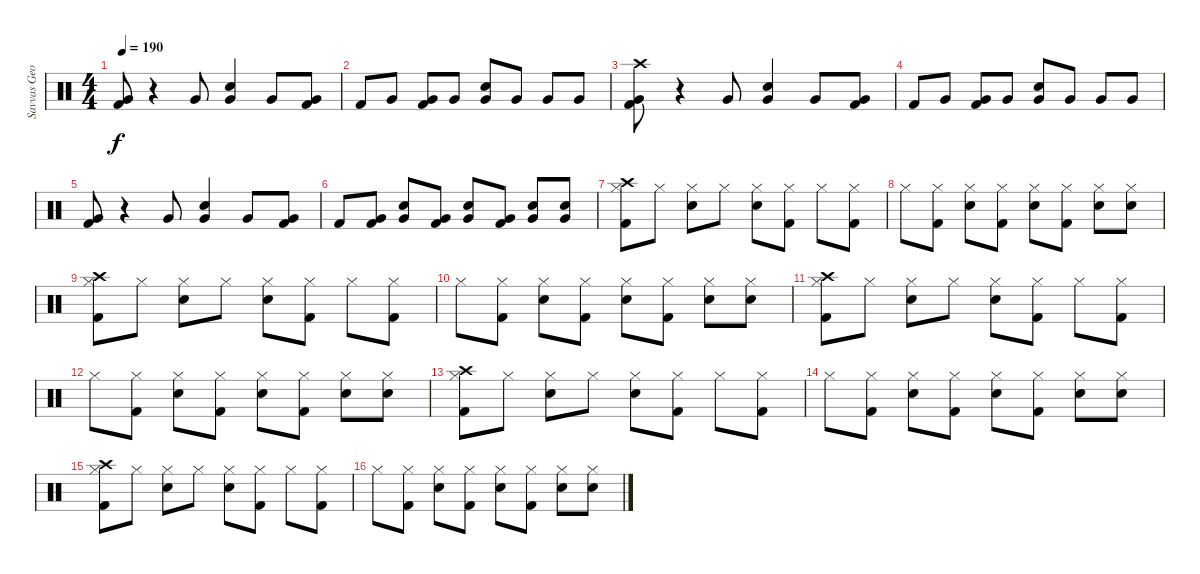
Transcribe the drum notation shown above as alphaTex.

\track ("Savvas Georgiadis" "Savvas Geo") {instrument percussion}
\staff {score}
\articulation defaults
\ts (4 4)
\tempo 190
\clef neutral
\ks c
("Kick (hit) 2" "Very Low Tom (hit)").8{dy f} r.4 "Very Low Tom (hit)".8 ("Electric Snare (hit)" "Very Low Tom (hit)").4 "Very Low Tom (hit)".8 ("Kick (hit) 2" "Very Low Tom (hit)").8 |
"Kick (hit) 2".8 "Very Low Tom (hit)".8 ("Kick (hit) 2" "Very Low Tom (hit)").8 "Very Low Tom (hit)".8 ("Electric Snare (hit)" "Very Low Tom (hit)").8 "Very Low Tom (hit)".8 "Very Low Tom (hit)".8 "Very Low Tom (hit)".8 |
("Crash high (hit)" "Kick (hit) 2" "Very Low Tom (hit)").8 r.4 "Very Low Tom (hit)".8 ("Electric Snare (hit)" "Very Low Tom (hit)").4 "Very Low Tom (hit)".8 ("Kick (hit) 2" "Very Low Tom (hit)").8 |
"Kick (hit) 2".8 "Very Low Tom (hit)".8 ("Kick (hit) 2" "Very Low Tom (hit)").8 "Very Low Tom (hit)".8 ("Electric Snare (hit)" "Very Low Tom (hit)").8 "Very Low Tom (hit)".8 "Very Low Tom (hit)".8 "Very Low Tom (hit)".8 |
("Kick (hit) 2" "Very Low Tom (hit)").8 r.4 "Very Low Tom (hit)".8 ("Electric Snare (hit)" "Very Low Tom (hit)").4 "Very Low Tom (hit)".8 ("Kick (hit) 2" "Very Low Tom (hit)").8 |
"Kick (hit) 2".8 ("Kick (hit) 2" "Very Low Tom (hit)").8 ("Electric Snare (hit)" "Very Low Tom (hit)").8 ("Kick (hit) 2" "Very Low Tom (hit)").8 ("Electric Snare (hit)" "Very Low Tom (hit)").8 ("Kick (hit) 2" "Very Low Tom (hit)").8 ("Electric Snare (hit)" "Very Low Tom (hit)").8 ("Electric Snare (hit)" "Very Low Tom (hit)").8 |
("Crash high (hit)" "Hi-Hat (closed)" "Kick (hit) 2").8 "Hi-Hat (closed)".8 ("Hi-Hat (closed)" "Electric Snare (hit)").8 "Hi-Hat (closed)".8 ("Hi-Hat (closed)" "Electric Snare (hit)").8 ("Hi-Hat (closed)" "Kick (hit) 2").8 "Hi-Hat (closed)".8 ("Hi-Hat (closed)" "Kick (hit) 2").8 |
"Hi-Hat (closed)".8 ("Hi-Hat (closed)" "Kick (hit) 2").8 ("Hi-Hat (closed)" "Electric Snare (hit)").8 ("Hi-Hat (closed)" "Kick (hit) 2").8 ("Hi-Hat (closed)" "Electric Snare (hit)").8 ("Hi-Hat (closed)" "Kick (hit) 2").8 ("Hi-Hat (closed)" "Electric Snare (hit)").8 ("Hi-Hat (closed)" "Electric Snare (hit)").8 |
("Crash high (hit)" "Hi-Hat (closed)" "Kick (hit) 2").8 "Hi-Hat (closed)".8 ("Hi-Hat (closed)" "Electric Snare (hit)").8 "Hi-Hat (closed)".8 ("Hi-Hat (closed)" "Electric Snare (hit)").8 ("Hi-Hat (closed)" "Kick (hit) 2").8 "Hi-Hat (closed)".8 ("Hi-Hat (closed)" "Kick (hit) 2").8 |
"Hi-Hat (closed)".8 ("Hi-Hat (closed)" "Kick (hit) 2").8 ("Hi-Hat (closed)" "Electric Snare (hit)").8 ("Hi-Hat (closed)" "Kick (hit) 2").8 ("Hi-Hat (closed)" "Electric Snare (hit)").8 ("Hi-Hat (closed)" "Kick (hit) 2").8 ("Hi-Hat (closed)" "Electric Snare (hit)").8 ("Hi-Hat (closed)" "Electric Snare (hit)").8 |
("Crash high (hit)" "Hi-Hat (closed)" "Kick (hit) 2").8 "Hi-Hat (closed)".8 ("Hi-Hat (closed)" "Electric Snare (hit)").8 "Hi-Hat (closed)".8 ("Hi-Hat (closed)" "Electric Snare (hit)").8 ("Hi-Hat (closed)" "Kick (hit) 2").8 "Hi-Hat (closed)".8 ("Hi-Hat (closed)" "Kick (hit) 2").8 |
"Hi-Hat (closed)".8 ("Hi-Hat (closed)" "Kick (hit) 2").8 ("Hi-Hat (closed)" "Electric Snare (hit)").8 ("Hi-Hat (closed)" "Kick (hit) 2").8 ("Hi-Hat (closed)" "Electric Snare (hit)").8 ("Hi-Hat (closed)" "Kick (hit) 2").8 ("Hi-Hat (closed)" "Electric Snare (hit)").8 ("Hi-Hat (closed)" "Electric Snare (hit)").8 |
("Crash high (hit)" "Hi-Hat (closed)" "Kick (hit) 2").8 "Hi-Hat (closed)".8 ("Hi-Hat (closed)" "Electric Snare (hit)").8 "Hi-Hat (closed)".8 ("Hi-Hat (closed)" "Electric Snare (hit)").8 ("Hi-Hat (closed)" "Kick (hit) 2").8 "Hi-Hat (closed)".8 ("Hi-Hat (closed)" "Kick (hit) 2").8 |
"Hi-Hat (closed)".8 ("Hi-Hat (closed)" "Kick (hit) 2").8 ("Hi-Hat (closed)" "Electric Snare (hit)").8 ("Hi-Hat (closed)" "Kick (hit) 2").8 ("Hi-Hat (closed)" "Electric Snare (hit)").8 ("Hi-Hat (closed)" "Kick (hit) 2").8 ("Hi-Hat (closed)" "Electric Snare (hit)").8 ("Hi-Hat (closed)" "Electric Snare (hit)").8 |
("Crash high (hit)" "Hi-Hat (closed)" "Kick (hit) 2").8 "Hi-Hat (closed)".8 ("Hi-Hat (closed)" "Electric Snare (hit)").8 "Hi-Hat (closed)".8 ("Hi-Hat (closed)" "Electric Snare (hit)").8 ("Hi-Hat (closed)" "Kick (hit) 2").8 "Hi-Hat (closed)".8 ("Hi-Hat (closed)" "Kick (hit) 2").8 |
"Hi-Hat (closed)".8 ("Hi-Hat (closed)" "Kick (hit) 2").8 ("Hi-Hat (closed)" "Electric Snare (hit)").8 ("Hi-Hat (closed)" "Kick (hit) 2").8 ("Hi-Hat (closed)" "Electric Snare (hit)").8 ("Hi-Hat (closed)" "Kick (hit) 2").8 ("Hi-Hat (closed)" "Electric Snare (hit)").8 ("Hi-Hat (closed)" "Electric Snare (hit)").8
